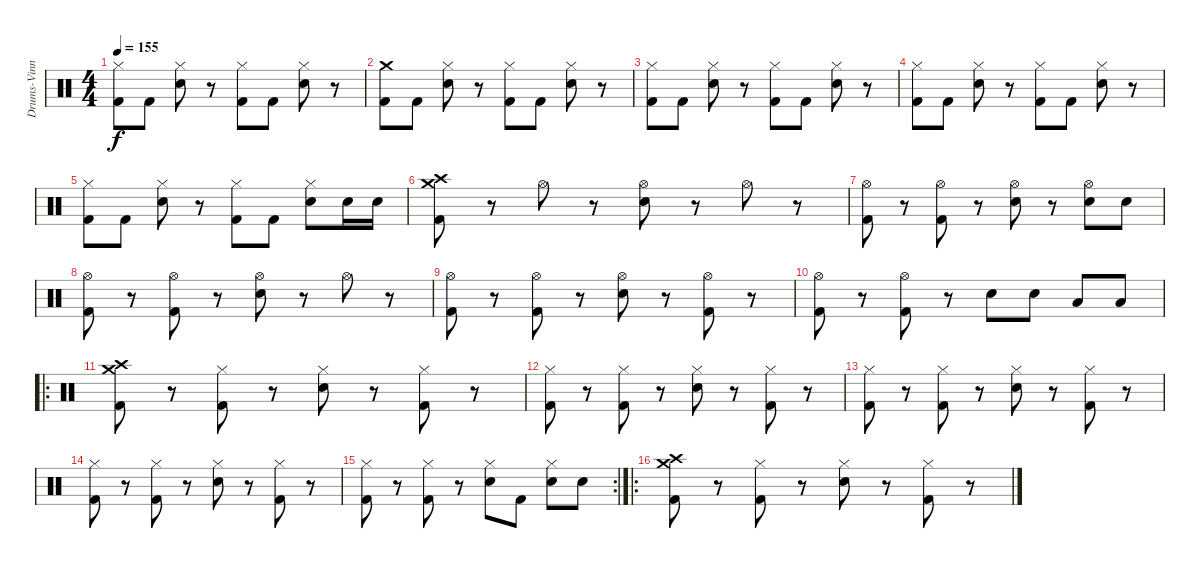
\track ("Drums-Vinny Appice" "Drums-Vinn") {instrument percussion}
\staff {score}
\articulation defaults
\ts (4 4)
\tempo 155
\clef neutral
\ks c
("Hi-Hat (closed)" "Kick (hit) 2").8{dy f} "Kick (hit) 2".8 ("Hi-Hat (closed)" "Electric Snare (hit)").8 r.8 ("Hi-Hat (closed)" "Kick (hit) 2").8 "Kick (hit) 2".8 ("Hi-Hat (closed)" "Electric Snare (hit)").8 r.8 |
("Crash medium (hit)" "Kick (hit) 2").8 "Kick (hit) 2".8 ("Hi-Hat (closed)" "Electric Snare (hit)").8 r.8 ("Hi-Hat (closed)" "Kick (hit) 2").8 "Kick (hit) 2".8 ("Hi-Hat (closed)" "Electric Snare (hit)").8 r.8 |
("Hi-Hat (closed)" "Kick (hit) 2").8 "Kick (hit) 2".8 ("Hi-Hat (closed)" "Electric Snare (hit)").8 r.8 ("Hi-Hat (closed)" "Kick (hit) 2").8 "Kick (hit) 2".8 ("Hi-Hat (closed)" "Electric Snare (hit)").8 r.8 |
("Hi-Hat (closed)" "Kick (hit) 2").8 "Kick (hit) 2".8 ("Hi-Hat (closed)" "Electric Snare (hit)").8 r.8 ("Hi-Hat (closed)" "Kick (hit) 2").8 "Kick (hit) 2".8 ("Hi-Hat (closed)" "Electric Snare (hit)").8 r.8 |
("Hi-Hat (closed)" "Kick (hit) 2").8 "Kick (hit) 2".8 ("Hi-Hat (closed)" "Electric Snare (hit)").8 r.8 ("Hi-Hat (closed)" "Kick (hit) 2").8 "Kick (hit) 2".8 ("Hi-Hat (closed)" "Electric Snare (hit)").8 "Electric Snare (hit)".16 "Electric Snare (hit)".16 |
("Crash medium (hit)" "Crash high (hit)" "Kick (hit) 2").8 r.8 "Hi-Hat (open)".8 r.8 ("Hi-Hat (open)" "Electric Snare (hit)").8 r.8 "Hi-Hat (open)".8 r.8 |
("Hi-Hat (open)" "Kick (hit) 2").8 r.8 ("Hi-Hat (open)" "Kick (hit) 2").8 r.8 ("Hi-Hat (open)" "Electric Snare (hit)").8 r.8 ("Hi-Hat (open)" "Electric Snare (hit)").8 "Electric Snare (hit)".8 |
("Hi-Hat (open)" "Kick (hit) 2").8 r.8 ("Hi-Hat (open)" "Kick (hit) 2").8 r.8 ("Hi-Hat (open)" "Electric Snare (hit)").8 r.8 "Hi-Hat (open)".8 r.8 |
("Hi-Hat (open)" "Kick (hit) 2").8 r.8 ("Hi-Hat (open)" "Kick (hit) 2").8 r.8 ("Hi-Hat (open)" "Electric Snare (hit)").8 r.8 ("Hi-Hat (open)" "Kick (hit) 2").8 r.8 |
("Hi-Hat (open)" "Kick (hit) 2").8 r.8 ("Hi-Hat (open)" "Kick (hit) 2").8 r.8 "Electric Snare (hit)".8 "Electric Snare (hit)".8 "Low Floor Tom (hit)".8 "Low Floor Tom (hit)".8 |
\ro
("Crash medium (hit)" "Crash high (hit)" "Kick (hit) 2").8 r.8 ("Hi-Hat (closed)" "Kick (hit) 2").8 r.8 ("Hi-Hat (closed)" "Electric Snare (hit)").8 r.8 ("Hi-Hat (closed)" "Kick (hit) 2").8 r.8 |
("Hi-Hat (closed)" "Kick (hit) 2").8 r.8 ("Hi-Hat (closed)" "Kick (hit) 2").8 r.8 ("Hi-Hat (closed)" "Electric Snare (hit)").8 r.8 ("Hi-Hat (closed)" "Kick (hit) 2").8 r.8 |
("Hi-Hat (closed)" "Kick (hit) 2").8 r.8 ("Hi-Hat (closed)" "Kick (hit) 2").8 r.8 ("Hi-Hat (closed)" "Electric Snare (hit)").8 r.8 ("Hi-Hat (closed)" "Kick (hit) 2").8 r.8 |
("Hi-Hat (closed)" "Kick (hit) 2").8 r.8 ("Hi-Hat (closed)" "Kick (hit) 2").8 r.8 ("Hi-Hat (closed)" "Electric Snare (hit)").8 r.8 ("Hi-Hat (closed)" "Kick (hit) 2").8 r.8 |
\rc 2
("Hi-Hat (closed)" "Kick (hit) 2").8 r.8 ("Hi-Hat (closed)" "Kick (hit) 2").8 r.8 ("Hi-Hat (closed)" "Electric Snare (hit)").8 "Kick (hit) 2".8 ("Hi-Hat (closed)" "Electric Snare (hit)").8 "Electric Snare (hit)".8 |
\ro
("Crash medium (hit)" "Crash high (hit)" "Kick (hit) 2").8 r.8 ("Hi-Hat (closed)" "Kick (hit) 2").8 r.8 ("Hi-Hat (closed)" "Electric Snare (hit)").8 r.8 ("Hi-Hat (closed)" "Kick (hit) 2").8 r.8
